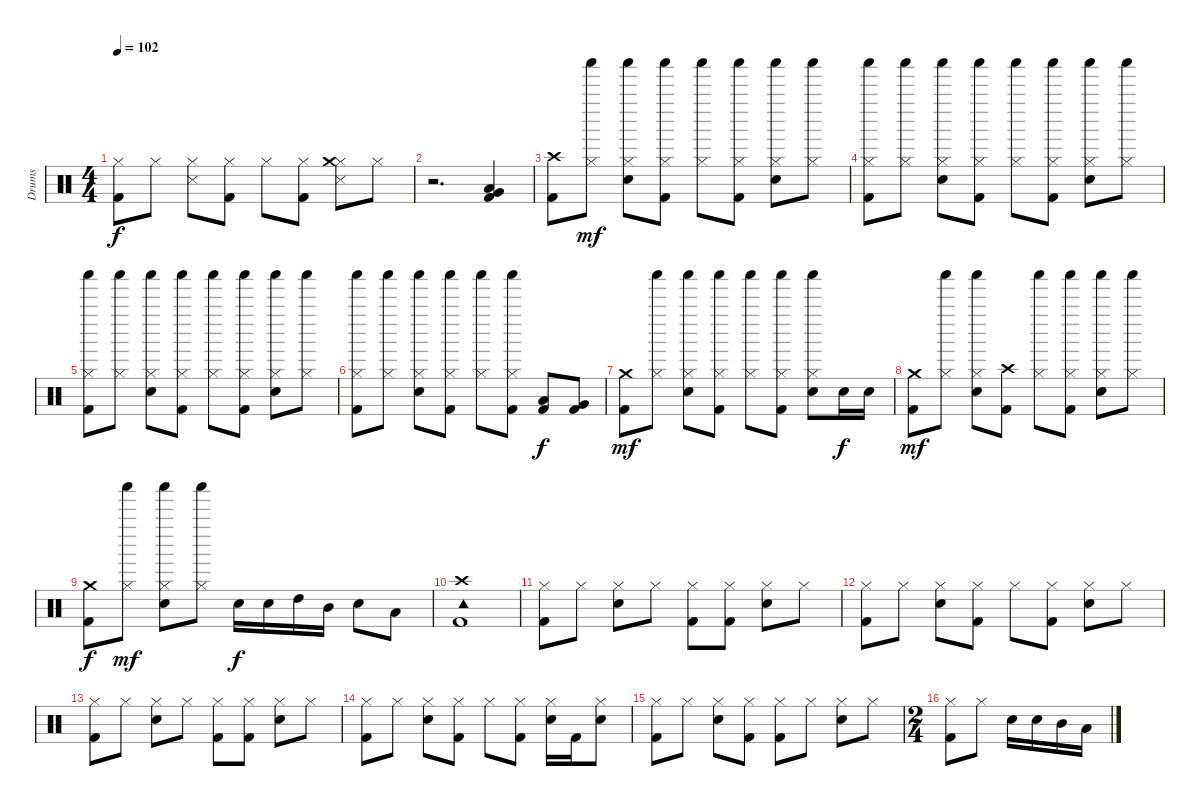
\track ("Drums" "Drums") {instrument percussion}
\staff {score}
\articulation defaults
\ts (4 4)
\tempo 102
\clef neutral
\ks c
("Kick (hit) 2" "Hi-Hat (closed)").8{dy f} "Hi-Hat (closed)".8 ("Snare (side stick) 3" "Hi-Hat (closed)").8 ("Kick (hit) 2" "Hi-Hat (closed)").8 "Hi-Hat (closed)".8 ("Kick (hit) 2" "Hi-Hat (closed)").8 ("Snare (side stick) 3" "Hi-Hat (closed)" "Crash medium (hit)").8 "Hi-Hat (closed)".8 |
r.2{d} ("Kick (hit) 2" "Low Floor Tom (hit)" "Very Low Tom (hit)").4 |
("Kick (hit) 2" "Crash high (hit)").8 ("Hi-Hat (closed)" "Shaker (hit)").8{dy mf} ("Electric Snare (hit)" "Hi-Hat (closed)" "Shaker (hit)").8 ("Kick (hit) 2" "Hi-Hat (closed)" "Shaker (hit)").8 ("Hi-Hat (closed)" "Shaker (hit)").8 ("Kick (hit) 2" "Hi-Hat (closed)" "Shaker (hit)").8 ("Electric Snare (hit)" "Hi-Hat (closed)" "Shaker (hit)").8 ("Hi-Hat (closed)" "Shaker (hit)").8 |
("Kick (hit) 2" "Hi-Hat (closed)" "Shaker (hit)").8 ("Hi-Hat (closed)" "Shaker (hit)").8 ("Electric Snare (hit)" "Hi-Hat (closed)" "Shaker (hit)").8 ("Kick (hit) 2" "Hi-Hat (closed)" "Shaker (hit)").8 ("Hi-Hat (closed)" "Shaker (hit)").8 ("Kick (hit) 2" "Hi-Hat (closed)" "Shaker (hit)").8 ("Electric Snare (hit)" "Hi-Hat (closed)" "Shaker (hit)").8 ("Hi-Hat (closed)" "Shaker (hit)").8 |
("Kick (hit) 2" "Hi-Hat (closed)" "Shaker (hit)").8 ("Hi-Hat (closed)" "Shaker (hit)").8 ("Electric Snare (hit)" "Hi-Hat (closed)" "Shaker (hit)").8 ("Kick (hit) 2" "Hi-Hat (closed)" "Shaker (hit)").8 ("Hi-Hat (closed)" "Shaker (hit)").8 ("Kick (hit) 2" "Hi-Hat (closed)" "Shaker (hit)").8 ("Electric Snare (hit)" "Hi-Hat (closed)" "Shaker (hit)").8 ("Hi-Hat (closed)" "Shaker (hit)").8 |
("Kick (hit) 2" "Hi-Hat (closed)" "Shaker (hit)").8 ("Hi-Hat (closed)" "Shaker (hit)").8 ("Electric Snare (hit)" "Hi-Hat (closed)" "Shaker (hit)").8 ("Kick (hit) 2" "Hi-Hat (closed)" "Shaker (hit)").8 ("Hi-Hat (closed)" "Shaker (hit)").8 ("Kick (hit) 2" "Hi-Hat (closed)" "Shaker (hit)").8 ("Kick (hit) 2" "Low Tom (hit)").8{dy f} ("Kick (hit) 2" "Very Low Tom (hit)").8 |
("Kick (hit) 2" "Crash medium (hit)").8{dy mf} ("Hi-Hat (closed)" "Shaker (hit)").8 ("Electric Snare (hit)" "Hi-Hat (closed)" "Shaker (hit)").8 ("Kick (hit) 2" "Hi-Hat (closed)" "Shaker (hit)").8 ("Hi-Hat (closed)" "Shaker (hit)").8 ("Kick (hit) 2" "Hi-Hat (closed)" "Shaker (hit)").8 ("Electric Snare (hit)" "Hi-Hat (closed)" "Shaker (hit)").8 "Electric Snare (hit)".16{dy f} "Electric Snare (hit)".16 |
("Kick (hit) 2" "Crash medium (hit)").8{dy mf} ("Hi-Hat (closed)" "Shaker (hit)").8 ("Electric Snare (hit)" "Hi-Hat (closed)" "Shaker (hit)").8 ("Kick (hit) 2" "Crash high (hit)").8 ("Hi-Hat (closed)" "Shaker (hit)").8 ("Kick (hit) 2" "Hi-Hat (closed)" "Shaker (hit)").8 ("Electric Snare (hit)" "Hi-Hat (closed)" "Shaker (hit)").8 ("Hi-Hat (closed)" "Shaker (hit)").8 |
("Kick (hit) 2" "Crash medium (hit)").8{dy f} ("Hi-Hat (closed)" "Shaker (hit)").8{dy mf} ("Electric Snare (hit)" "Hi-Hat (closed)" "Shaker (hit)").8 ("Hi-Hat (closed)" "Shaker (hit)").8 "Electric Snare (hit)".16{dy f} "Electric Snare (hit)".16 "High Tom (hit)".16 "Mid Tom (hit)".16 "Electric Snare (hit)".8 "Low Tom (hit)".8 |
("Kick (hit) 2" "Tambourine (hit)" "Crash high (hit)").1 |
("Kick (hit) 2" "Hi-Hat (closed)").8 "Hi-Hat (closed)".8 ("Electric Snare (hit)" "Hi-Hat (closed)").8 "Hi-Hat (closed)".8 ("Kick (hit) 2" "Hi-Hat (closed)").8 ("Kick (hit) 2" "Hi-Hat (closed)").8 ("Electric Snare (hit)" "Hi-Hat (closed)").8 "Hi-Hat (closed)".8 |
("Kick (hit) 2" "Hi-Hat (closed)").8 "Hi-Hat (closed)".8 ("Electric Snare (hit)" "Hi-Hat (closed)").8 ("Kick (hit) 2" "Hi-Hat (closed)").8 "Hi-Hat (closed)".8 ("Kick (hit) 2" "Hi-Hat (closed)").8 ("Electric Snare (hit)" "Hi-Hat (closed)").8 "Hi-Hat (closed)".8 |
("Kick (hit) 2" "Hi-Hat (closed)").8 "Hi-Hat (closed)".8 ("Electric Snare (hit)" "Hi-Hat (closed)").8 "Hi-Hat (closed)".8 ("Kick (hit) 2" "Hi-Hat (closed)").8 ("Kick (hit) 2" "Hi-Hat (closed)").8 ("Electric Snare (hit)" "Hi-Hat (closed)").8 "Hi-Hat (closed)".8 |
("Kick (hit) 2" "Hi-Hat (closed)").8 "Hi-Hat (closed)".8 ("Electric Snare (hit)" "Hi-Hat (closed)").8 ("Kick (hit) 2" "Hi-Hat (closed)").8 "Hi-Hat (closed)".8 ("Kick (hit) 2" "Hi-Hat (closed)").8 ("Electric Snare (hit)" "Hi-Hat (closed)").16 "Kick (hit) 2".16 ("Electric Snare (hit)" "Hi-Hat (closed)").8 |
("Kick (hit) 2" "Hi-Hat (closed)").8 "Hi-Hat (closed)".8 ("Electric Snare (hit)" "Hi-Hat (closed)").8 ("Kick (hit) 2" "Hi-Hat (closed)").8 ("Kick (hit) 2" "Hi-Hat (closed)").8 "Hi-Hat (closed)".8 ("Electric Snare (hit)" "Hi-Hat (closed)").8 "Hi-Hat (closed)".8 |
\ts (2 4)
("Kick (hit) 2" "Hi-Hat (closed)").8 "Hi-Hat (closed)".8 "Electric Snare (hit)".16 "Electric Snare (hit)".16 "Mid Tom (hit)".16 "Low Tom (hit)".16
